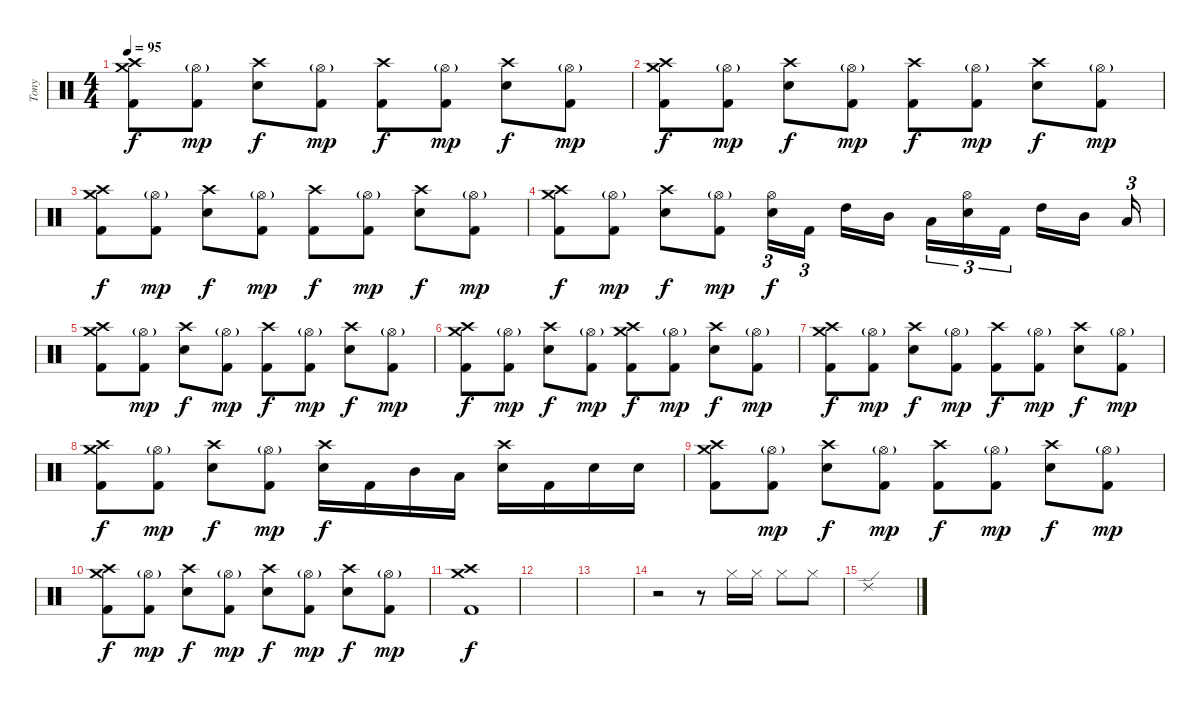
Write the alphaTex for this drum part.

\track ("Tony" "Tony") {instrument percussion}
\staff {score}
\articulation defaults
\ts (4 4)
\tempo 95
\clef neutral
\ks c
("Crash high (hit)" "Crash medium (hit)" "Kick (hit) 2").8{dy f} ("Hi-Hat (open)"{g} "Kick (hit) 2").8{dy mp} ("Crash high (hit)" "Electric Snare (hit)").8{dy f} ("Hi-Hat (open)"{g} "Kick (hit) 2").8{dy mp} ("Crash high (hit)" "Kick (hit) 2").8{dy f} ("Hi-Hat (open)"{g} "Kick (hit) 2").8{dy mp} ("Crash high (hit)" "Electric Snare (hit)").8{dy f} ("Hi-Hat (open)"{g} "Kick (hit) 2").8{dy mp} |
("Crash high (hit)" "Crash medium (hit)" "Kick (hit) 2").8{dy f} ("Hi-Hat (open)"{g} "Kick (hit) 2").8{dy mp} ("Crash high (hit)" "Electric Snare (hit)").8{dy f} ("Hi-Hat (open)"{g} "Kick (hit) 2").8{dy mp} ("Crash high (hit)" "Kick (hit) 2").8{dy f} ("Hi-Hat (open)"{g} "Kick (hit) 2").8{dy mp} ("Crash high (hit)" "Electric Snare (hit)").8{dy f} ("Hi-Hat (open)"{g} "Kick (hit) 2").8{dy mp} |
("Crash high (hit)" "Crash medium (hit)" "Kick (hit) 2").8{dy f} ("Hi-Hat (open)"{g} "Kick (hit) 2").8{dy mp} ("Crash high (hit)" "Electric Snare (hit)").8{dy f} ("Hi-Hat (open)"{g} "Kick (hit) 2").8{dy mp} ("Crash high (hit)" "Kick (hit) 2").8{dy f} ("Hi-Hat (open)"{g} "Kick (hit) 2").8{dy mp} ("Crash high (hit)" "Electric Snare (hit)").8{dy f} ("Hi-Hat (open)"{g} "Kick (hit) 2").8{dy mp} |
("Crash high (hit)" "Crash medium (hit)" "Kick (hit) 2").8{dy f} ("Hi-Hat (open)"{g} "Kick (hit) 2").8{dy mp} ("Crash high (hit)" "Electric Snare (hit)").8{dy f} ("Hi-Hat (open)"{g} "Kick (hit) 2").8{dy mp} ("Hi-Hat (open)" "Electric Snare (hit)").16{tu (3 2) dy f} "Kick (hit) 2".16{tu (3 2) beam splitsecondary} "High Tom (hit)".16 "Mid Tom (hit)".16{beam splitsecondary} "Low Tom (hit)".16{tu (3 2)} ("Hi-Hat (open)" "Electric Snare (hit)").16{tu (3 2)} "Kick (hit) 2".16{tu (3 2) beam splitsecondary} "High Tom (hit)".16 "Mid Tom (hit)".16{beam splitsecondary} "Low Tom (hit)".16{tu (3 2)} |
("Crash high (hit)" "Crash medium (hit)" "Kick (hit) 2").8 ("Hi-Hat (open)"{g} "Kick (hit) 2").8{dy mp} ("Crash high (hit)" "Electric Snare (hit)").8{dy f} ("Hi-Hat (open)"{g} "Kick (hit) 2").8{dy mp} ("Crash high (hit)" "Kick (hit) 2").8{dy f} ("Hi-Hat (open)"{g} "Kick (hit) 2").8{dy mp} ("Crash high (hit)" "Electric Snare (hit)").8{dy f} ("Hi-Hat (open)"{g} "Kick (hit) 2").8{dy mp} |
("Crash high (hit)" "Crash medium (hit)" "Kick (hit) 2").8{dy f} ("Hi-Hat (open)"{g} "Kick (hit) 2").8{dy mp} ("Crash high (hit)" "Electric Snare (hit)").8{dy f} ("Hi-Hat (open)"{g} "Kick (hit) 2").8{dy mp} ("Crash medium (hit)" "Crash high (hit)" "Kick (hit) 2").8{dy f} ("Hi-Hat (open)"{g} "Kick (hit) 2").8{dy mp} ("Crash high (hit)" "Electric Snare (hit)").8{dy f} ("Hi-Hat (open)"{g} "Kick (hit) 2").8{dy mp} |
("Crash high (hit)" "Crash medium (hit)" "Kick (hit) 2").8{dy f} ("Hi-Hat (open)"{g} "Kick (hit) 2").8{dy mp} ("Crash high (hit)" "Electric Snare (hit)").8{dy f} ("Hi-Hat (open)"{g} "Kick (hit) 2").8{dy mp} ("Crash high (hit)" "Kick (hit) 2").8{dy f} ("Hi-Hat (open)"{g} "Kick (hit) 2").8{dy mp} ("Crash high (hit)" "Electric Snare (hit)").8{dy f} ("Hi-Hat (open)"{g} "Kick (hit) 2").8{dy mp} |
("Crash high (hit)" "Crash medium (hit)" "Kick (hit) 2").8{dy f} ("Hi-Hat (open)"{g} "Kick (hit) 2").8{dy mp} ("Crash high (hit)" "Electric Snare (hit)").8{dy f} ("Hi-Hat (open)"{g} "Kick (hit) 2").8{dy mp} ("Crash high (hit)" "Electric Snare (hit)").16{dy f} "Kick (hit) 2".16 "Mid Tom (hit)".16 "Low Tom (hit)".16 ("Crash high (hit)" "Electric Snare (hit)").16 "Kick (hit) 2".16 "Electric Snare (hit)".16 "Electric Snare (hit)".16 |
("Crash high (hit)" "Crash medium (hit)" "Kick (hit) 2").8 ("Hi-Hat (open)"{g} "Kick (hit) 2").8{dy mp} ("Crash high (hit)" "Electric Snare (hit)").8{dy f} ("Hi-Hat (open)"{g} "Kick (hit) 2").8{dy mp} ("Crash high (hit)" "Kick (hit) 2").8{dy f} ("Hi-Hat (open)"{g} "Kick (hit) 2").8{dy mp} ("Crash high (hit)" "Electric Snare (hit)").8{dy f} ("Hi-Hat (open)"{g} "Kick (hit) 2").8{dy mp} |
("Crash high (hit)" "Crash medium (hit)" "Kick (hit) 2").8{dy f} ("Hi-Hat (open)"{g} "Kick (hit) 2").8{dy mp} ("Crash high (hit)" "Electric Snare (hit)").8{dy f} ("Hi-Hat (open)"{g} "Kick (hit) 2").8{dy mp} ("Crash high (hit)" "Electric Snare (hit)").8{dy f} ("Hi-Hat (open)"{g} "Kick (hit) 2").8{dy mp} ("Crash high (hit)" "Electric Snare (hit)").8{dy f} ("Hi-Hat (open)"{g} "Kick (hit) 2").8{dy mp} |
("Crash high (hit)" "Crash medium (hit)" "Kick (hit) 2").1{dy f} |
|
|
r.2 r.8 "Hi-Hat (closed)".16 "Hi-Hat (closed)".16 "Hi-Hat (closed)".8 "Hi-Hat (closed)".8 |
"Ride (edge) 2".1
